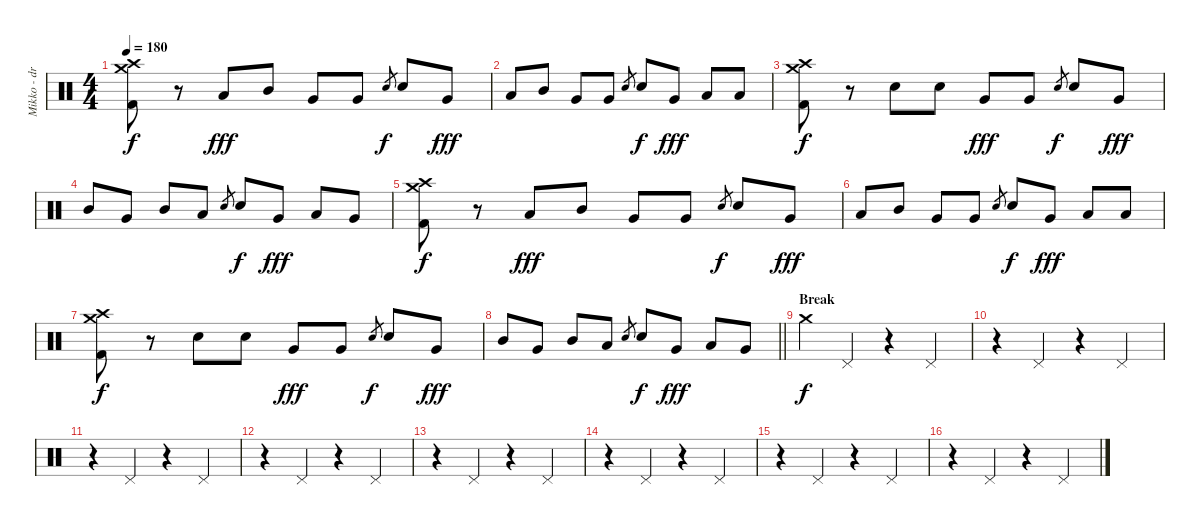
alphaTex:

\track ("Mikko - drums" "Mikko - dr") {instrument percussion}
\staff {score}
\articulation defaults
\ts (4 4)
\tempo 180
\clef neutral
\ks c
("Crash medium (hit)" "Crash high (hit)" "Kick (hit) 2").8{dy f} r.8 "Low Tom (hit)".8{dy fff} "Mid Tom (hit)".8 "Very Low Tom (hit)".8 "Very Low Tom (hit)".8 "Snare (hit) 2".8{gr dy f} "Snare (hit) 2".8 "Very Low Tom (hit)".8{dy fff} |
"Low Tom (hit)".8 "Mid Tom (hit)".8 "Very Low Tom (hit)".8 "Very Low Tom (hit)".8 "Snare (hit) 2".8{gr} "Snare (hit) 2".8{dy f} "Very Low Tom (hit)".8{dy fff} "Low Tom (hit)".8 "Low Tom (hit)".8 |
("Crash medium (hit)" "Crash high (hit)" "Kick (hit) 2").8{dy f} r.8 "Snare (hit) 2".8 "Snare (hit) 2".8 "Very Low Tom (hit)".8{dy fff} "Very Low Tom (hit)".8 "Snare (hit) 2".8{gr dy f} "Snare (hit) 2".8 "Very Low Tom (hit)".8{dy fff} |
"Mid Tom (hit)".8 "Very Low Tom (hit)".8 "Mid Tom (hit)".8 "Low Tom (hit)".8 "Snare (hit) 2".8{gr} "Snare (hit) 2".8{dy f} "Very Low Tom (hit)".8{dy fff} "Low Tom (hit)".8 "Very Low Tom (hit)".8 |
("Crash medium (hit)" "Crash high (hit)" "Kick (hit) 2").8{dy f} r.8 "Low Tom (hit)".8{dy fff} "Mid Tom (hit)".8 "Very Low Tom (hit)".8 "Very Low Tom (hit)".8 "Snare (hit) 2".8{gr dy f} "Snare (hit) 2".8 "Very Low Tom (hit)".8{dy fff} |
"Low Tom (hit)".8 "Mid Tom (hit)".8 "Very Low Tom (hit)".8 "Very Low Tom (hit)".8 "Snare (hit) 2".8{gr} "Snare (hit) 2".8{dy f} "Very Low Tom (hit)".8{dy fff} "Low Tom (hit)".8 "Low Tom (hit)".8 |
("Crash medium (hit)" "Crash high (hit)" "Kick (hit) 2").8{dy f} r.8 "Snare (hit) 2".8 "Snare (hit) 2".8 "Very Low Tom (hit)".8{dy fff} "Very Low Tom (hit)".8 "Snare (hit) 2".8{gr dy f} "Snare (hit) 2".8 "Very Low Tom (hit)".8{dy fff} |
\barLineRight lightlight "Mid Tom (hit)".8 "Very Low Tom (hit)".8 "Mid Tom (hit)".8 "Low Tom (hit)".8 "Snare (hit) 2".8{gr} "Snare (hit) 2".8{dy f} "Very Low Tom (hit)".8{dy fff} "Low Tom (hit)".8 "Very Low Tom (hit)".8
|
\section ("" "Break")
"Crash medium (hit)".4{dy f} "Pedal Hi-Hat (hit)".4 r.4 "Pedal Hi-Hat (hit)".4 |
r.4 "Pedal Hi-Hat (hit)".4 r.4 "Pedal Hi-Hat (hit)".4 |
r.4 "Pedal Hi-Hat (hit)".4 r.4 "Pedal Hi-Hat (hit)".4 |
r.4 "Pedal Hi-Hat (hit)".4 r.4 "Pedal Hi-Hat (hit)".4 |
r.4 "Pedal Hi-Hat (hit)".4 r.4 "Pedal Hi-Hat (hit)".4 |
r.4 "Pedal Hi-Hat (hit)".4 r.4 "Pedal Hi-Hat (hit)".4 |
r.4 "Pedal Hi-Hat (hit)".4 r.4 "Pedal Hi-Hat (hit)".4 |
r.4 "Pedal Hi-Hat (hit)".4 r.4 "Pedal Hi-Hat (hit)".4
